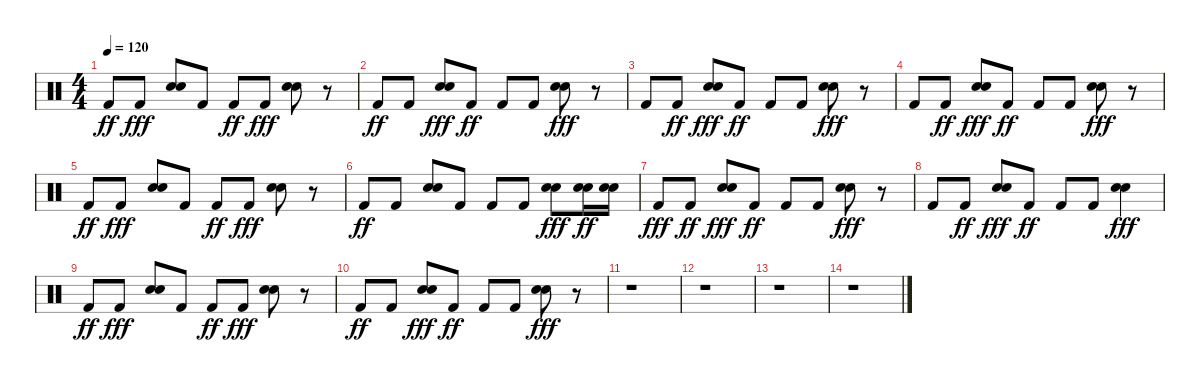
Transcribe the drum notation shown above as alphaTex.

\track "" {instrument percussion}
\staff {score}
\articulation defaults
\ts (4 4)
\tempo 120
\clef neutral
\ks c "Kick (hit) 2".8{dy ff} "Kick (hit) 2".8{dy fff}
("Snare (hit) 2" "Electric Snare (hit)").8 "Kick (hit) 2".8 "Kick (hit) 2".8{dy ff} "Kick (hit) 2".8{dy fff} ("Snare (hit) 2" "Electric Snare (hit)").8 r.8 |
"Kick (hit) 2".8{dy ff} "Kick (hit) 2".8 ("Electric Snare (hit)" "Snare (hit) 2").8{dy fff} "Kick (hit) 2".8{dy ff} "Kick (hit) 2".8 "Kick (hit) 2".8 ("Snare (hit) 2" "Electric Snare (hit)").8{dy fff} r.8 |
"Kick (hit) 2".8 "Kick (hit) 2".8{dy ff} ("Electric Snare (hit)" "Snare (hit) 2").8{dy fff} "Kick (hit) 2".8{dy ff} "Kick (hit) 2".8 "Kick (hit) 2".8 ("Electric Snare (hit)" "Snare (hit) 2").8{dy fff} r.8 |
"Kick (hit) 2".8 "Kick (hit) 2".8{dy ff} ("Electric Snare (hit)" "Snare (hit) 2").8{dy fff} "Kick (hit) 2".8{dy ff} "Kick (hit) 2".8 "Kick (hit) 2".8 ("Snare (hit) 2" "Electric Snare (hit)").8{dy fff} r.8 |
"Kick (hit) 2".8{dy ff} "Kick (hit) 2".8{dy fff} ("Electric Snare (hit)" "Snare (hit) 2").8 "Kick (hit) 2".8 "Kick (hit) 2".8{dy ff} "Kick (hit) 2".8{dy fff} ("Snare (hit) 2" "Electric Snare (hit)").8 r.8 |
"Kick (hit) 2".8{dy ff} "Kick (hit) 2".8 ("Snare (hit) 2" "Electric Snare (hit)").8 "Kick (hit) 2".8 "Kick (hit) 2".8 "Kick (hit) 2".8 ("Electric Snare (hit)" "Snare (hit) 2").8{dy fff} ("Electric Snare (hit)" "Snare (hit) 2").16{dy ff} ("Snare (hit) 2" "Electric Snare (hit)").16 |
"Kick (hit) 2".8{dy fff} "Kick (hit) 2".8{dy ff} ("Electric Snare (hit)" "Snare (hit) 2").8{dy fff} "Kick (hit) 2".8{dy ff} "Kick (hit) 2".8 "Kick (hit) 2".8 ("Electric Snare (hit)" "Snare (hit) 2").8{dy fff} r.8 |
"Kick (hit) 2".8 "Kick (hit) 2".8{dy ff} ("Electric Snare (hit)" "Snare (hit) 2").8{dy fff} "Kick (hit) 2".8{dy ff} "Kick (hit) 2".8 "Kick (hit) 2".8 ("Electric Snare (hit)" "Snare (hit) 2").4{dy fff} |
"Kick (hit) 2".8{dy ff} "Kick (hit) 2".8{dy fff} ("Snare (hit) 2" "Electric Snare (hit)").8 "Kick (hit) 2".8 "Kick (hit) 2".8{dy ff} "Kick (hit) 2".8{dy fff} ("Snare (hit) 2" "Electric Snare (hit)").8 r.8 |
"Kick (hit) 2".8{dy ff} "Kick (hit) 2".8 ("Electric Snare (hit)" "Snare (hit) 2").8{dy fff} "Kick (hit) 2".8{dy ff} "Kick (hit) 2".8 "Kick (hit) 2".8 ("Snare (hit) 2" "Electric Snare (hit)").8{dy fff} r.8 |
r.1 |
r.1 |
r.1 |
r.1
